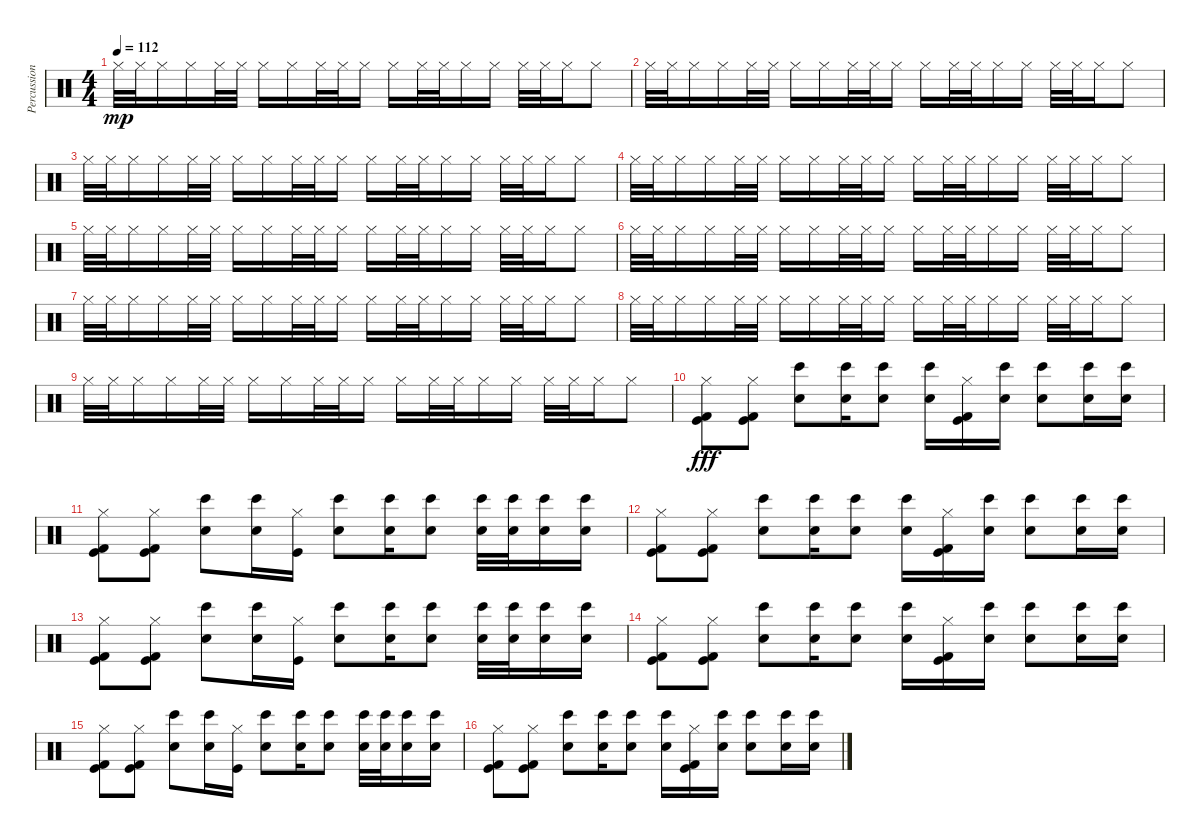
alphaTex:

\track ("Percussion" "Percussion") {instrument percussion}
\staff {score}
\articulation defaults
\ts (4 4)
\tempo 112
\clef neutral
\ks c "Hi-Hat (closed)".32{dy mp} "Hi-Hat (closed)".32 "Hi-Hat (closed)".16 "Hi-Hat (closed)".16 "Hi-Hat (closed)".32 "Hi-Hat (closed)".32 "Hi-Hat (closed)".16 "Hi-Hat (closed)".16 "Hi-Hat (closed)".32 "Hi-Hat (closed)".32 "Hi-Hat (closed)".16 "Hi-Hat (closed)".16 "Hi-Hat (closed)".32 "Hi-Hat (closed)".32 "Hi-Hat (closed)".16 "Hi-Hat (closed)".16 "Hi-Hat (closed)".32 "Hi-Hat (closed)".32 "Hi-Hat (closed)".16 "Hi-Hat (closed)".8
|
"Hi-Hat (closed)".32 "Hi-Hat (closed)".32 "Hi-Hat (closed)".16 "Hi-Hat (closed)".16 "Hi-Hat (closed)".32 "Hi-Hat (closed)".32 "Hi-Hat (closed)".16 "Hi-Hat (closed)".16 "Hi-Hat (closed)".32 "Hi-Hat (closed)".32 "Hi-Hat (closed)".16 "Hi-Hat (closed)".16 "Hi-Hat (closed)".32 "Hi-Hat (closed)".32 "Hi-Hat (closed)".16 "Hi-Hat (closed)".16 "Hi-Hat (closed)".32 "Hi-Hat (closed)".32 "Hi-Hat (closed)".16 "Hi-Hat (closed)".8 |
"Hi-Hat (closed)".32 "Hi-Hat (closed)".32 "Hi-Hat (closed)".16 "Hi-Hat (closed)".16 "Hi-Hat (closed)".32 "Hi-Hat (closed)".32 "Hi-Hat (closed)".16 "Hi-Hat (closed)".16 "Hi-Hat (closed)".32 "Hi-Hat (closed)".32 "Hi-Hat (closed)".16 "Hi-Hat (closed)".16 "Hi-Hat (closed)".32 "Hi-Hat (closed)".32 "Hi-Hat (closed)".16 "Hi-Hat (closed)".16 "Hi-Hat (closed)".32 "Hi-Hat (closed)".32 "Hi-Hat (closed)".16 "Hi-Hat (closed)".8 |
"Hi-Hat (closed)".32 "Hi-Hat (closed)".32 "Hi-Hat (closed)".16 "Hi-Hat (closed)".16 "Hi-Hat (closed)".32 "Hi-Hat (closed)".32 "Hi-Hat (closed)".16 "Hi-Hat (closed)".16 "Hi-Hat (closed)".32 "Hi-Hat (closed)".32 "Hi-Hat (closed)".16 "Hi-Hat (closed)".16 "Hi-Hat (closed)".32 "Hi-Hat (closed)".32 "Hi-Hat (closed)".16 "Hi-Hat (closed)".16 "Hi-Hat (closed)".32 "Hi-Hat (closed)".32 "Hi-Hat (closed)".16 "Hi-Hat (closed)".8 |
"Hi-Hat (closed)".32 "Hi-Hat (closed)".32 "Hi-Hat (closed)".16 "Hi-Hat (closed)".16 "Hi-Hat (closed)".32 "Hi-Hat (closed)".32 "Hi-Hat (closed)".16 "Hi-Hat (closed)".16 "Hi-Hat (closed)".32 "Hi-Hat (closed)".32 "Hi-Hat (closed)".16 "Hi-Hat (closed)".16 "Hi-Hat (closed)".32 "Hi-Hat (closed)".32 "Hi-Hat (closed)".16 "Hi-Hat (closed)".16 "Hi-Hat (closed)".32 "Hi-Hat (closed)".32 "Hi-Hat (closed)".16 "Hi-Hat (closed)".8 |
"Hi-Hat (closed)".32 "Hi-Hat (closed)".32 "Hi-Hat (closed)".16 "Hi-Hat (closed)".16 "Hi-Hat (closed)".32 "Hi-Hat (closed)".32 "Hi-Hat (closed)".16 "Hi-Hat (closed)".16 "Hi-Hat (closed)".32 "Hi-Hat (closed)".32 "Hi-Hat (closed)".16 "Hi-Hat (closed)".16 "Hi-Hat (closed)".32 "Hi-Hat (closed)".32 "Hi-Hat (closed)".16 "Hi-Hat (closed)".16 "Hi-Hat (closed)".32 "Hi-Hat (closed)".32 "Hi-Hat (closed)".16 "Hi-Hat (closed)".8 |
"Hi-Hat (closed)".32 "Hi-Hat (closed)".32 "Hi-Hat (closed)".16 "Hi-Hat (closed)".16 "Hi-Hat (closed)".32 "Hi-Hat (closed)".32 "Hi-Hat (closed)".16 "Hi-Hat (closed)".16 "Hi-Hat (closed)".32 "Hi-Hat (closed)".32 "Hi-Hat (closed)".16 "Hi-Hat (closed)".16 "Hi-Hat (closed)".32 "Hi-Hat (closed)".32 "Hi-Hat (closed)".16 "Hi-Hat (closed)".16 "Hi-Hat (closed)".32 "Hi-Hat (closed)".32 "Hi-Hat (closed)".16 "Hi-Hat (closed)".8 |
"Hi-Hat (closed)".32 "Hi-Hat (closed)".32 "Hi-Hat (closed)".16 "Hi-Hat (closed)".16 "Hi-Hat (closed)".32 "Hi-Hat (closed)".32 "Hi-Hat (closed)".16 "Hi-Hat (closed)".16 "Hi-Hat (closed)".32 "Hi-Hat (closed)".32 "Hi-Hat (closed)".16 "Hi-Hat (closed)".16 "Hi-Hat (closed)".32 "Hi-Hat (closed)".32 "Hi-Hat (closed)".16 "Hi-Hat (closed)".16 "Hi-Hat (closed)".32 "Hi-Hat (closed)".32 "Hi-Hat (closed)".16 "Hi-Hat (closed)".8 |
"Hi-Hat (closed)".32 "Hi-Hat (closed)".32 "Hi-Hat (closed)".16 "Hi-Hat (closed)".16 "Hi-Hat (closed)".32 "Hi-Hat (closed)".32 "Hi-Hat (closed)".16 "Hi-Hat (closed)".16 "Hi-Hat (closed)".32 "Hi-Hat (closed)".32 "Hi-Hat (closed)".16 "Hi-Hat (closed)".16 "Hi-Hat (closed)".32 "Hi-Hat (closed)".32 "Hi-Hat (closed)".16 "Hi-Hat (closed)".16 "Hi-Hat (closed)".32 "Hi-Hat (closed)".32 "Hi-Hat (closed)".16 "Hi-Hat (closed)".8 |
("Kick (hit)" "Hi-Hat (closed)" "Kick (hit) 2").8{dy fff} ("Hi-Hat (closed)" "Kick (hit)" "Kick (hit) 2").8 ("Bongo High (hit)" "Snare (hit) 2").8 ("Bongo High (hit)" "Snare (hit) 2").16 ("Bongo High (hit)" "Snare (hit) 2").8 ("Snare (hit) 2" "Bongo High (hit)").16 ("Hi-Hat (closed)" "Kick (hit) 2" "Kick (hit)").16 ("Bongo High (hit)" "Snare (hit) 2").16 ("Bongo High (hit)" "Snare (hit) 2").8 ("Bongo High (hit)" "Snare (hit) 2").16 ("Bongo High (hit)" "Snare (hit) 2").16 |
("Kick (hit)" "Hi-Hat (closed)" "Kick (hit) 2").8 ("Hi-Hat (closed)" "Kick (hit)" "Kick (hit) 2").8 ("Bongo High (hit)" "Snare (hit) 2").8 ("Bongo High (hit)" "Snare (hit) 2").16 ("Hi-Hat (closed)" "Kick (hit)").16 ("Snare (hit) 2" "Bongo High (hit)").8 ("Bongo High (hit)" "Snare (hit) 2").16 ("Bongo High (hit)" "Snare (hit) 2").8 ("Bongo High (hit)" "Snare (hit) 2").32 ("Bongo High (hit)" "Snare (hit) 2").32 ("Bongo High (hit)" "Snare (hit) 2").16 ("Bongo High (hit)" "Snare (hit) 2").16 |
("Kick (hit)" "Hi-Hat (closed)" "Kick (hit) 2").8 ("Hi-Hat (closed)" "Kick (hit)" "Kick (hit) 2").8 ("Bongo High (hit)" "Snare (hit) 2").8 ("Bongo High (hit)" "Snare (hit) 2").16 ("Bongo High (hit)" "Snare (hit) 2").8 ("Snare (hit) 2" "Bongo High (hit)").16 ("Hi-Hat (closed)" "Kick (hit) 2" "Kick (hit)").16 ("Bongo High (hit)" "Snare (hit) 2").16 ("Bongo High (hit)" "Snare (hit) 2").8 ("Bongo High (hit)" "Snare (hit) 2").16 ("Bongo High (hit)" "Snare (hit) 2").16 |
("Kick (hit)" "Hi-Hat (closed)" "Kick (hit) 2").8 ("Hi-Hat (closed)" "Kick (hit)" "Kick (hit) 2").8 ("Bongo High (hit)" "Snare (hit) 2").8 ("Bongo High (hit)" "Snare (hit) 2").16 ("Hi-Hat (closed)" "Kick (hit)").16 ("Snare (hit) 2" "Bongo High (hit)").8 ("Bongo High (hit)" "Snare (hit) 2").16 ("Bongo High (hit)" "Snare (hit) 2").8 ("Bongo High (hit)" "Snare (hit) 2").32 ("Bongo High (hit)" "Snare (hit) 2").32 ("Bongo High (hit)" "Snare (hit) 2").16 ("Bongo High (hit)" "Snare (hit) 2").16 |
("Kick (hit)" "Hi-Hat (closed)" "Kick (hit) 2").8 ("Hi-Hat (closed)" "Kick (hit)" "Kick (hit) 2").8 ("Bongo High (hit)" "Snare (hit) 2").8 ("Bongo High (hit)" "Snare (hit) 2").16 ("Bongo High (hit)" "Snare (hit) 2").8 ("Snare (hit) 2" "Bongo High (hit)").16 ("Hi-Hat (closed)" "Kick (hit) 2" "Kick (hit)").16 ("Bongo High (hit)" "Snare (hit) 2").16 ("Bongo High (hit)" "Snare (hit) 2").8 ("Bongo High (hit)" "Snare (hit) 2").16 ("Bongo High (hit)" "Snare (hit) 2").16 |
("Kick (hit)" "Hi-Hat (closed)" "Kick (hit) 2").8 ("Hi-Hat (closed)" "Kick (hit)" "Kick (hit) 2").8 ("Bongo High (hit)" "Snare (hit) 2").8 ("Bongo High (hit)" "Snare (hit) 2").16 ("Hi-Hat (closed)" "Kick (hit)").16 ("Snare (hit) 2" "Bongo High (hit)").8 ("Bongo High (hit)" "Snare (hit) 2").16 ("Bongo High (hit)" "Snare (hit) 2").8 ("Bongo High (hit)" "Snare (hit) 2").32 ("Bongo High (hit)" "Snare (hit) 2").32 ("Bongo High (hit)" "Snare (hit) 2").16 ("Bongo High (hit)" "Snare (hit) 2").16 |
("Kick (hit)" "Hi-Hat (closed)" "Kick (hit) 2").8 ("Hi-Hat (closed)" "Kick (hit)" "Kick (hit) 2").8 ("Bongo High (hit)" "Snare (hit) 2").8 ("Bongo High (hit)" "Snare (hit) 2").16 ("Bongo High (hit)" "Snare (hit) 2").8 ("Snare (hit) 2" "Bongo High (hit)").16 ("Hi-Hat (closed)" "Kick (hit) 2" "Kick (hit)").16 ("Bongo High (hit)" "Snare (hit) 2").16 ("Bongo High (hit)" "Snare (hit) 2").8 ("Bongo High (hit)" "Snare (hit) 2").16 ("Bongo High (hit)" "Snare (hit) 2").16
